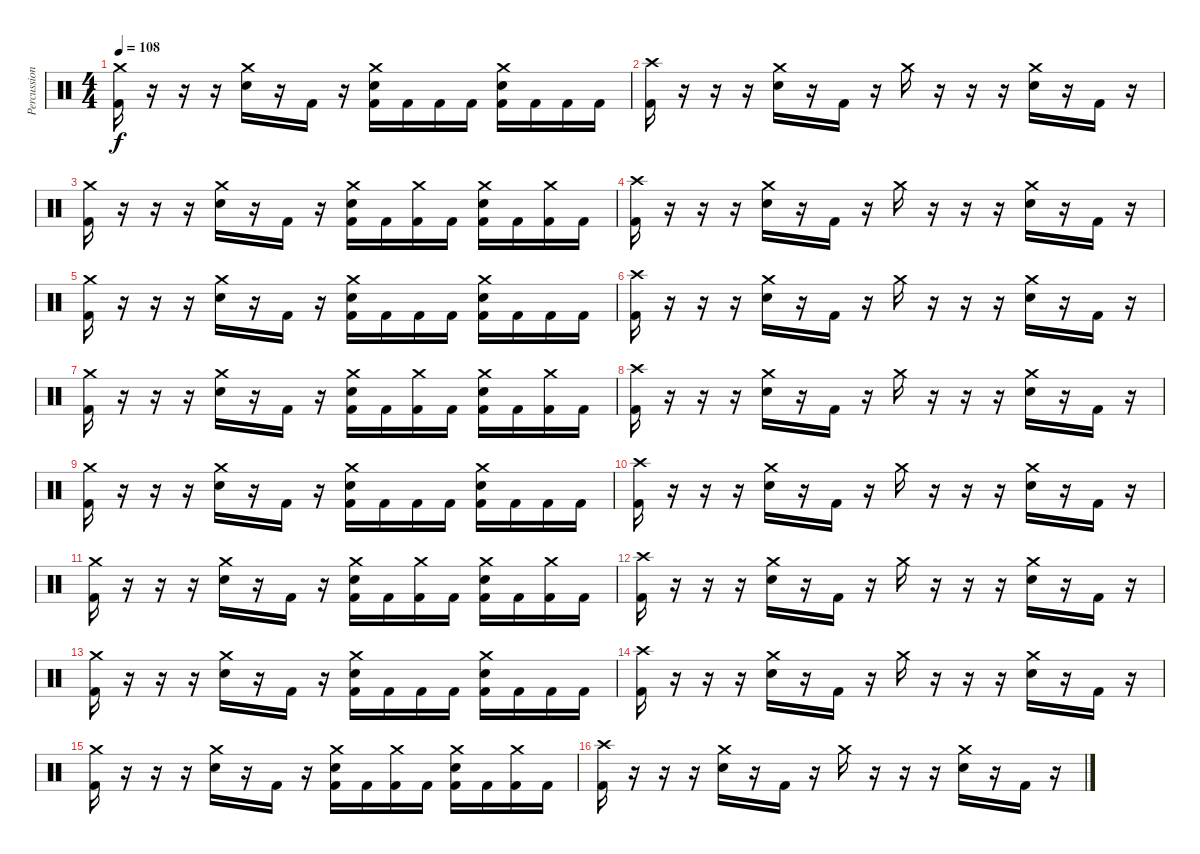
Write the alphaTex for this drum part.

\track ("Percussion" "Percussion") {instrument percussion}
\staff {score}
\articulation defaults
\ts (4 4)
\tempo 108
\clef neutral
\ks c
("Crash medium (hit)" "Kick (hit) 2").16{dy f} r.16 r.16 r.16 ("Crash medium (hit)" "Electric Snare (hit)").16 r.16 "Kick (hit) 2".16 r.16 ("Crash medium (hit)" "Electric Snare (hit)" "Kick (hit) 2").16 "Kick (hit) 2".16 "Kick (hit) 2".16 "Kick (hit) 2".16 ("Crash medium (hit)" "Electric Snare (hit)" "Kick (hit) 2").16 "Kick (hit) 2".16 "Kick (hit) 2".16 "Kick (hit) 2".16 |
("Crash high (hit)" "Kick (hit) 2").16 r.16 r.16 r.16 ("Crash medium (hit)" "Electric Snare (hit)").16 r.16 "Kick (hit) 2".16 r.16 "Crash medium (hit)".16 r.16 r.16 r.16 ("Crash medium (hit)" "Electric Snare (hit)").16 r.16 "Kick (hit) 2".16 r.16 |
("Crash medium (hit)" "Kick (hit) 2").16 r.16 r.16 r.16 ("Crash medium (hit)" "Electric Snare (hit)").16 r.16 "Kick (hit) 2".16 r.16 ("Crash medium (hit)" "Electric Snare (hit)" "Kick (hit) 2").16 "Kick (hit) 2".16 ("Crash medium (hit)" "Kick (hit) 2").16 "Kick (hit) 2".16 ("Crash medium (hit)" "Electric Snare (hit)" "Kick (hit) 2").16 "Kick (hit) 2".16 ("Crash medium (hit)" "Kick (hit) 2").16 "Kick (hit) 2".16 |
("Crash high (hit)" "Kick (hit) 2").16 r.16 r.16 r.16 ("Crash medium (hit)" "Electric Snare (hit)").16 r.16 "Kick (hit) 2".16 r.16 "Crash medium (hit)".16 r.16 r.16 r.16 ("Crash medium (hit)" "Electric Snare (hit)").16 r.16 "Kick (hit) 2".16 r.16 |
("Crash medium (hit)" "Kick (hit) 2").16 r.16 r.16 r.16 ("Crash medium (hit)" "Electric Snare (hit)").16 r.16 "Kick (hit) 2".16 r.16 ("Crash medium (hit)" "Electric Snare (hit)" "Kick (hit) 2").16 "Kick (hit) 2".16 "Kick (hit) 2".16 "Kick (hit) 2".16 ("Crash medium (hit)" "Electric Snare (hit)" "Kick (hit) 2").16 "Kick (hit) 2".16 "Kick (hit) 2".16 "Kick (hit) 2".16 |
("Crash high (hit)" "Kick (hit) 2").16 r.16 r.16 r.16 ("Crash medium (hit)" "Electric Snare (hit)").16 r.16 "Kick (hit) 2".16 r.16 "Crash medium (hit)".16 r.16 r.16 r.16 ("Crash medium (hit)" "Electric Snare (hit)").16 r.16 "Kick (hit) 2".16 r.16 |
("Crash medium (hit)" "Kick (hit) 2").16 r.16 r.16 r.16 ("Crash medium (hit)" "Electric Snare (hit)").16 r.16 "Kick (hit) 2".16 r.16 ("Crash medium (hit)" "Electric Snare (hit)" "Kick (hit) 2").16 "Kick (hit) 2".16 ("Crash medium (hit)" "Kick (hit) 2").16 "Kick (hit) 2".16 ("Crash medium (hit)" "Electric Snare (hit)" "Kick (hit) 2").16 "Kick (hit) 2".16 ("Crash medium (hit)" "Kick (hit) 2").16 "Kick (hit) 2".16 |
("Crash high (hit)" "Kick (hit) 2").16 r.16 r.16 r.16 ("Crash medium (hit)" "Electric Snare (hit)").16 r.16 "Kick (hit) 2".16 r.16 "Crash medium (hit)".16 r.16 r.16 r.16 ("Crash medium (hit)" "Electric Snare (hit)").16 r.16 "Kick (hit) 2".16 r.16 |
("Crash medium (hit)" "Kick (hit) 2").16 r.16 r.16 r.16 ("Crash medium (hit)" "Electric Snare (hit)").16 r.16 "Kick (hit) 2".16 r.16 ("Crash medium (hit)" "Electric Snare (hit)" "Kick (hit) 2").16 "Kick (hit) 2".16 "Kick (hit) 2".16 "Kick (hit) 2".16 ("Crash medium (hit)" "Electric Snare (hit)" "Kick (hit) 2").16 "Kick (hit) 2".16 "Kick (hit) 2".16 "Kick (hit) 2".16 |
("Crash high (hit)" "Kick (hit) 2").16 r.16 r.16 r.16 ("Crash medium (hit)" "Electric Snare (hit)").16 r.16 "Kick (hit) 2".16 r.16 "Crash medium (hit)".16 r.16 r.16 r.16 ("Crash medium (hit)" "Electric Snare (hit)").16 r.16 "Kick (hit) 2".16 r.16 |
("Crash medium (hit)" "Kick (hit) 2").16 r.16 r.16 r.16 ("Crash medium (hit)" "Electric Snare (hit)").16 r.16 "Kick (hit) 2".16 r.16 ("Crash medium (hit)" "Electric Snare (hit)" "Kick (hit) 2").16 "Kick (hit) 2".16 ("Crash medium (hit)" "Kick (hit) 2").16 "Kick (hit) 2".16 ("Crash medium (hit)" "Electric Snare (hit)" "Kick (hit) 2").16 "Kick (hit) 2".16 ("Crash medium (hit)" "Kick (hit) 2").16 "Kick (hit) 2".16 |
("Crash high (hit)" "Kick (hit) 2").16 r.16 r.16 r.16 ("Crash medium (hit)" "Electric Snare (hit)").16 r.16 "Kick (hit) 2".16 r.16 "Crash medium (hit)".16 r.16 r.16 r.16 ("Crash medium (hit)" "Electric Snare (hit)").16 r.16 "Kick (hit) 2".16 r.16 |
("Crash medium (hit)" "Kick (hit) 2").16 r.16 r.16 r.16 ("Crash medium (hit)" "Electric Snare (hit)").16 r.16 "Kick (hit) 2".16 r.16 ("Crash medium (hit)" "Electric Snare (hit)" "Kick (hit) 2").16 "Kick (hit) 2".16 "Kick (hit) 2".16 "Kick (hit) 2".16 ("Crash medium (hit)" "Electric Snare (hit)" "Kick (hit) 2").16 "Kick (hit) 2".16 "Kick (hit) 2".16 "Kick (hit) 2".16 |
("Crash high (hit)" "Kick (hit) 2").16 r.16 r.16 r.16 ("Crash medium (hit)" "Electric Snare (hit)").16 r.16 "Kick (hit) 2".16 r.16 "Crash medium (hit)".16 r.16 r.16 r.16 ("Crash medium (hit)" "Electric Snare (hit)").16 r.16 "Kick (hit) 2".16 r.16 |
("Crash medium (hit)" "Kick (hit) 2").16 r.16 r.16 r.16 ("Crash medium (hit)" "Electric Snare (hit)").16 r.16 "Kick (hit) 2".16 r.16 ("Crash medium (hit)" "Electric Snare (hit)" "Kick (hit) 2").16 "Kick (hit) 2".16 ("Crash medium (hit)" "Kick (hit) 2").16 "Kick (hit) 2".16 ("Crash medium (hit)" "Electric Snare (hit)" "Kick (hit) 2").16 "Kick (hit) 2".16 ("Crash medium (hit)" "Kick (hit) 2").16 "Kick (hit) 2".16 |
("Crash high (hit)" "Kick (hit) 2").16 r.16 r.16 r.16 ("Crash medium (hit)" "Electric Snare (hit)").16 r.16 "Kick (hit) 2".16 r.16 "Crash medium (hit)".16 r.16 r.16 r.16 ("Crash medium (hit)" "Electric Snare (hit)").16 r.16 "Kick (hit) 2".16 r.16
